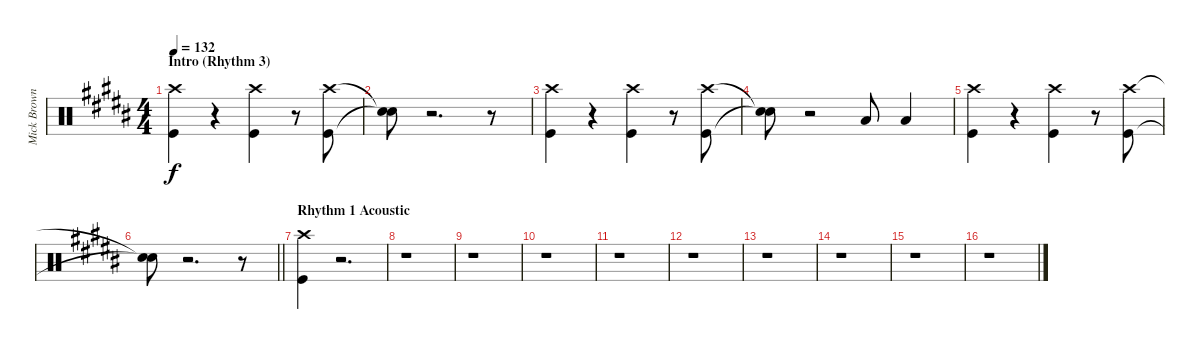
\track ("Mick Brown" "Mick Brown") {instrument percussion}
\staff {score}
\articulation defaults
\ts (4 4)
\section ("" "Intro (Rhythm 3)")
\tempo 132
\clef neutral
\ks g#minor
("Crash high (hit)" "Kick (hit)").4{dy f} r.4 ("Crash high (hit)" "Kick (hit)").4 r.8 ("Kick (hit)" "Crash high (hit)").8 |
("Snare (hit)"{t} "Snare (hit)"{t}).8 r.2{d} r.8 |
("Crash high (hit)" "Kick (hit)").4 r.4 ("Crash high (hit)" "Kick (hit)").4 r.8 ("Kick (hit)" "Crash high (hit)").8 |
("Snare (hit)"{t} "Snare (hit)"{t}).8 r.2 "Low Floor Tom (hit)".8 "Low Floor Tom (hit)".4 |
("Crash high (hit)" "Kick (hit)").4 r.4 ("Crash high (hit)" "Kick (hit)").4 r.8 ("Kick (hit)" "Crash high (hit)").8 |
\barLineRight lightlight
("Snare (hit)"{t} "Snare (hit)"{t}).8 r.2{d} r.8 |
\section ("" "Rhythm 1 Acoustic")
("Crash high (hit)" "Kick (hit)").4 r.2{d} |
r.1 |
r.1 |
r.1 |
r.1 |
r.1 |
r.1 |
r.1 |
r.1 |
r.1
